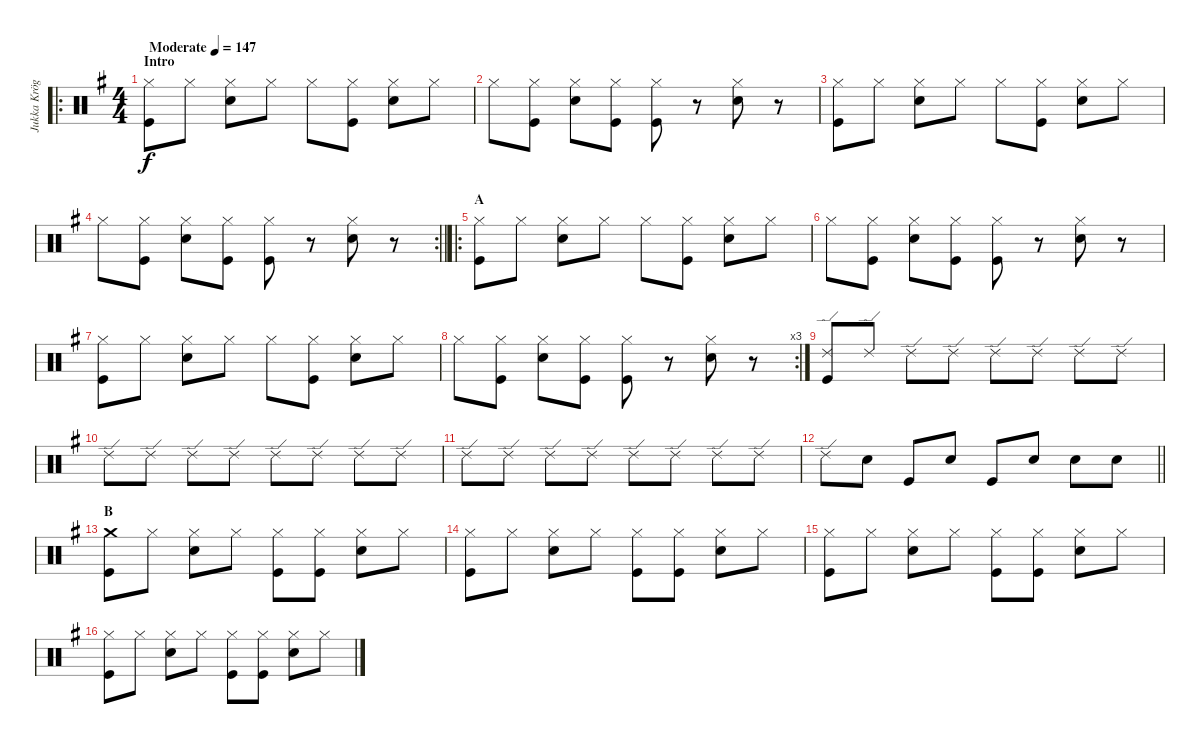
\track ("Jukka Kröger" "Jukka Krög") {instrument percussion}
\staff {score}
\articulation defaults
\ro
\ts (4 4)
\section ("" "Intro")
\tempo (147 "Moderate")
\clef neutral
\ks eminor
("Hi-Hat (closed)" "Kick (hit)").8{dy f} "Hi-Hat (closed)".8 ("Hi-Hat (closed)" "Snare (hit) 2").8 "Hi-Hat (closed)".8 "Hi-Hat (closed)".8 ("Hi-Hat (closed)" "Kick (hit)").8 ("Hi-Hat (closed)" "Snare (hit) 2").8 "Hi-Hat (closed)".8 |
"Hi-Hat (closed)".8 ("Hi-Hat (closed)" "Kick (hit)").8 ("Hi-Hat (closed)" "Snare (hit) 2").8 ("Hi-Hat (closed)" "Kick (hit)").8 ("Hi-Hat (closed)" "Kick (hit)").8 r.8 ("Hi-Hat (closed)" "Snare (hit) 2").8 r.8 |
("Hi-Hat (closed)" "Kick (hit)").8 "Hi-Hat (closed)".8 ("Hi-Hat (closed)" "Snare (hit) 2").8 "Hi-Hat (closed)".8 "Hi-Hat (closed)".8 ("Hi-Hat (closed)" "Kick (hit)").8 ("Hi-Hat (closed)" "Snare (hit) 2").8 "Hi-Hat (closed)".8 |
\rc 2
\barLineRight lightlight "Hi-Hat (closed)".8
("Hi-Hat (closed)" "Kick (hit)").8 ("Hi-Hat (closed)" "Snare (hit) 2").8 ("Hi-Hat (closed)" "Kick (hit)").8 ("Hi-Hat (closed)" "Kick (hit)").8 r.8 ("Hi-Hat (closed)" "Snare (hit) 2").8 r.8 |
\ro
\section ("" "A")
("Hi-Hat (closed)" "Kick (hit)").8 "Hi-Hat (closed)".8 ("Hi-Hat (closed)" "Snare (hit) 2").8 "Hi-Hat (closed)".8 "Hi-Hat (closed)".8 ("Hi-Hat (closed)" "Kick (hit)").8 ("Hi-Hat (closed)" "Snare (hit) 2").8 "Hi-Hat (closed)".8 |
"Hi-Hat (closed)".8 ("Hi-Hat (closed)" "Kick (hit)").8 ("Hi-Hat (closed)" "Snare (hit) 2").8 ("Hi-Hat (closed)" "Kick (hit)").8 ("Hi-Hat (closed)" "Kick (hit)").8 r.8 ("Hi-Hat (closed)" "Snare (hit) 2").8 r.8 |
("Hi-Hat (closed)" "Kick (hit)").8 "Hi-Hat (closed)".8 ("Hi-Hat (closed)" "Snare (hit) 2").8 "Hi-Hat (closed)".8 "Hi-Hat (closed)".8 ("Hi-Hat (closed)" "Kick (hit)").8 ("Hi-Hat (closed)" "Snare (hit) 2").8 "Hi-Hat (closed)".8 |
\rc 3 "Hi-Hat (closed)".8
("Hi-Hat (closed)" "Kick (hit)").8 ("Hi-Hat (closed)" "Snare (hit) 2").8 ("Hi-Hat (closed)" "Kick (hit)").8 ("Hi-Hat (closed)" "Kick (hit)").8 r.8 ("Hi-Hat (closed)" "Snare (hit) 2").8 r.8 |
("Kick (hit)" "Ride (edge) 2").8 "Ride (edge) 2".8 "Ride (edge) 2".8 "Ride (edge) 2".8 "Ride (edge) 2".8 "Ride (edge) 2".8 "Ride (edge) 2".8 "Ride (edge) 2".8 |
"Ride (edge) 2".8 "Ride (edge) 2".8 "Ride (edge) 2".8 "Ride (edge) 2".8 "Ride (edge) 2".8 "Ride (edge) 2".8 "Ride (edge) 2".8 "Ride (edge) 2".8 |
"Ride (edge) 2".8 "Ride (edge) 2".8 "Ride (edge) 2".8 "Ride (edge) 2".8 "Ride (edge) 2".8 "Ride (edge) 2".8 "Ride (edge) 2".8 "Ride (edge) 2".8 |
\barLineRight lightlight "Ride (edge) 2".8 "Snare (hit) 2".8 "Kick (hit)".8 "Snare (hit) 2".8 "Kick (hit)".8 "Snare (hit) 2".8 "Snare (hit) 2".8 "Snare (hit) 2".8
|
\section ("" "B")
("Crash medium (hit)" "Kick (hit)").8 "Hi-Hat (closed)".8 ("Hi-Hat (closed)" "Snare (hit) 2").8 "Hi-Hat (closed)".8 ("Hi-Hat (closed)" "Kick (hit)").8 ("Hi-Hat (closed)" "Kick (hit)").8 ("Hi-Hat (closed)" "Snare (hit) 2").8 "Hi-Hat (closed)".8 |
("Hi-Hat (closed)" "Kick (hit)").8 "Hi-Hat (closed)".8 ("Hi-Hat (closed)" "Snare (hit) 2").8 "Hi-Hat (closed)".8 ("Hi-Hat (closed)" "Kick (hit)").8 ("Hi-Hat (closed)" "Kick (hit)").8 ("Hi-Hat (closed)" "Snare (hit) 2").8 "Hi-Hat (closed)".8 |
("Hi-Hat (closed)" "Kick (hit)").8 "Hi-Hat (closed)".8 ("Hi-Hat (closed)" "Snare (hit) 2").8 "Hi-Hat (closed)".8 ("Hi-Hat (closed)" "Kick (hit)").8 ("Hi-Hat (closed)" "Kick (hit)").8 ("Hi-Hat (closed)" "Snare (hit) 2").8 "Hi-Hat (closed)".8 |
("Hi-Hat (closed)" "Kick (hit)").8 "Hi-Hat (closed)".8 ("Hi-Hat (closed)" "Snare (hit) 2").8 "Hi-Hat (closed)".8 ("Hi-Hat (closed)" "Kick (hit)").8 ("Hi-Hat (closed)" "Kick (hit)").8 ("Hi-Hat (closed)" "Snare (hit) 2").8 "Hi-Hat (closed)".8
